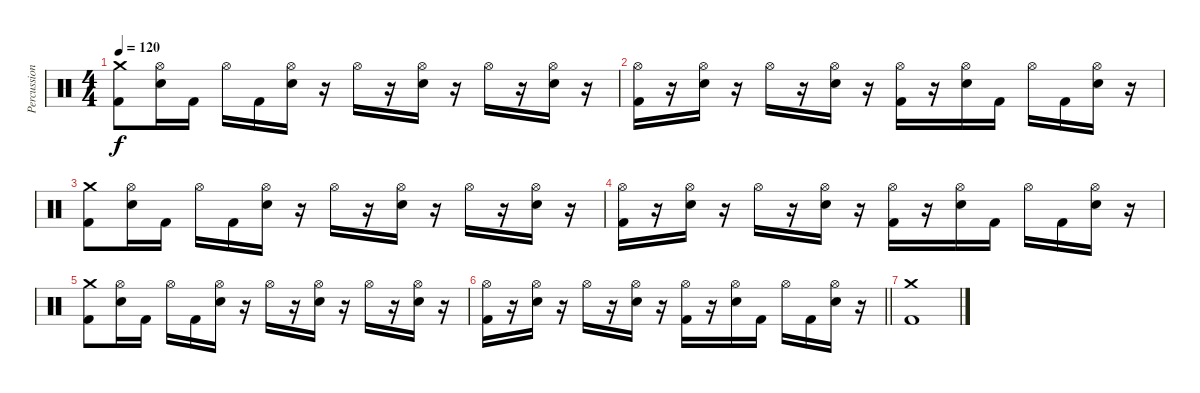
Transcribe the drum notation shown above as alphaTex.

\track ("Percussion" "Percussion") {instrument percussion}
\staff {score}
\articulation defaults
\ts (4 4)
\tempo 120
\clef neutral
\ks c
("Crash medium (hit)" "Kick (hit) 2").8{dy f} ("Hi-Hat (open)" "Electric Snare (hit)").16 "Kick (hit) 2".16 "Hi-Hat (open)".16 "Kick (hit) 2".16 ("Hi-Hat (open)" "Electric Snare (hit)").16 r.16 "Hi-Hat (open)".16 r.16 ("Hi-Hat (open)" "Electric Snare (hit)").16 r.16 "Hi-Hat (open)".16 r.16 ("Hi-Hat (open)" "Electric Snare (hit)").16 r.16 |
("Hi-Hat (open)" "Kick (hit) 2").16 r.16 ("Hi-Hat (open)" "Electric Snare (hit)").16 r.16 "Hi-Hat (open)".16 r.16 ("Hi-Hat (open)" "Electric Snare (hit)").16 r.16 ("Hi-Hat (open)" "Kick (hit) 2").16 r.16 ("Hi-Hat (open)" "Electric Snare (hit)").16 "Kick (hit) 2".16 "Hi-Hat (open)".16 "Kick (hit) 2".16 ("Hi-Hat (open)" "Electric Snare (hit)").16 r.16 |
("Crash medium (hit)" "Kick (hit) 2").8 ("Hi-Hat (open)" "Electric Snare (hit)").16 "Kick (hit) 2".16 "Hi-Hat (open)".16 "Kick (hit) 2".16 ("Hi-Hat (open)" "Electric Snare (hit)").16 r.16 "Hi-Hat (open)".16 r.16 ("Hi-Hat (open)" "Electric Snare (hit)").16 r.16 "Hi-Hat (open)".16 r.16 ("Hi-Hat (open)" "Electric Snare (hit)").16 r.16 |
("Hi-Hat (open)" "Kick (hit) 2").16 r.16 ("Hi-Hat (open)" "Electric Snare (hit)").16 r.16 "Hi-Hat (open)".16 r.16 ("Hi-Hat (open)" "Electric Snare (hit)").16 r.16 ("Hi-Hat (open)" "Kick (hit) 2").16 r.16 ("Hi-Hat (open)" "Electric Snare (hit)").16 "Kick (hit) 2".16 "Hi-Hat (open)".16 "Kick (hit) 2".16 ("Hi-Hat (open)" "Electric Snare (hit)").16 r.16 |
("Crash medium (hit)" "Kick (hit) 2").8 ("Hi-Hat (open)" "Electric Snare (hit)").16 "Kick (hit) 2".16 "Hi-Hat (open)".16 "Kick (hit) 2".16 ("Hi-Hat (open)" "Electric Snare (hit)").16 r.16 "Hi-Hat (open)".16 r.16 ("Hi-Hat (open)" "Electric Snare (hit)").16 r.16 "Hi-Hat (open)".16 r.16 ("Hi-Hat (open)" "Electric Snare (hit)").16 r.16 |
\barLineRight lightlight
("Hi-Hat (open)" "Kick (hit) 2").16 r.16 ("Hi-Hat (open)" "Electric Snare (hit)").16 r.16 "Hi-Hat (open)".16 r.16 ("Hi-Hat (open)" "Electric Snare (hit)").16 r.16 ("Hi-Hat (open)" "Kick (hit) 2").16 r.16 ("Hi-Hat (open)" "Electric Snare (hit)").16 "Kick (hit) 2".16 "Hi-Hat (open)".16 "Kick (hit) 2".16 ("Hi-Hat (open)" "Electric Snare (hit)").16 r.16 |
("Crash medium (hit)" "Kick (hit) 2").1
